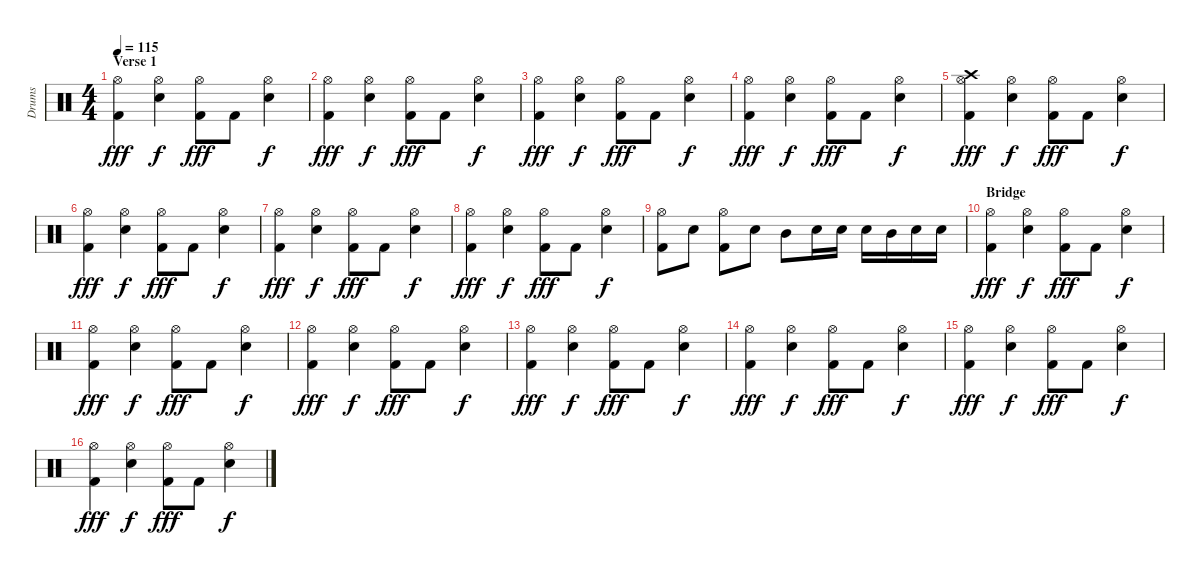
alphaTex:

\track ("Drums" "Drums") {instrument percussion}
\staff {score}
\articulation defaults
\ts (4 4)
\section ("" "Verse 1")
\tempo 115
\clef neutral
\ks c
("Hi-Hat (open)" "Kick (hit) 2").4{dy fff} ("Hi-Hat (open)" "Snare (hit) 2").4{dy f} ("Hi-Hat (open)" "Kick (hit) 2").8{dy fff} "Kick (hit) 2".8 ("Hi-Hat (open)" "Snare (hit) 2").4{dy f} |
("Hi-Hat (open)" "Kick (hit) 2").4{dy fff} ("Hi-Hat (open)" "Snare (hit) 2").4{dy f} ("Hi-Hat (open)" "Kick (hit) 2").8{dy fff} "Kick (hit) 2".8 ("Hi-Hat (open)" "Snare (hit) 2").4{dy f} |
("Hi-Hat (open)" "Kick (hit) 2").4{dy fff} ("Hi-Hat (open)" "Snare (hit) 2").4{dy f} ("Hi-Hat (open)" "Kick (hit) 2").8{dy fff} "Kick (hit) 2".8 ("Hi-Hat (open)" "Snare (hit) 2").4{dy f} |
("Hi-Hat (open)" "Kick (hit) 2").4{dy fff} ("Hi-Hat (open)" "Snare (hit) 2").4{dy f} ("Hi-Hat (open)" "Kick (hit) 2").8{dy fff} "Kick (hit) 2".8 ("Hi-Hat (open)" "Snare (hit) 2").4{dy f} |
("Hi-Hat (open)" "Crash high (hit)" "Kick (hit) 2").4{dy fff} ("Hi-Hat (open)" "Snare (hit) 2").4{dy f} ("Hi-Hat (open)" "Kick (hit) 2").8{dy fff} "Kick (hit) 2".8 ("Hi-Hat (open)" "Snare (hit) 2").4{dy f} |
("Hi-Hat (open)" "Kick (hit) 2").4{dy fff} ("Hi-Hat (open)" "Snare (hit) 2").4{dy f} ("Hi-Hat (open)" "Kick (hit) 2").8{dy fff} "Kick (hit) 2".8 ("Hi-Hat (open)" "Snare (hit) 2").4{dy f} |
("Hi-Hat (open)" "Kick (hit) 2").4{dy fff} ("Hi-Hat (open)" "Snare (hit) 2").4{dy f} ("Hi-Hat (open)" "Kick (hit) 2").8{dy fff} "Kick (hit) 2".8 ("Hi-Hat (open)" "Snare (hit) 2").4{dy f} |
("Hi-Hat (open)" "Kick (hit) 2").4{dy fff} ("Hi-Hat (open)" "Snare (hit) 2").4{dy f} ("Hi-Hat (open)" "Kick (hit) 2").8{dy fff} "Kick (hit) 2".8 ("Hi-Hat (open)" "Snare (hit) 2").4{dy f} |
("Hi-Hat (open)" "Kick (hit) 2").8 "Snare (hit) 2".8 ("Hi-Hat (open)" "Kick (hit) 2").8 "Snare (hit) 2".8 "Mid Tom (hit)".8 "Snare (hit) 2".16 "Snare (hit) 2".16 "Snare (hit) 2".16 "Mid Tom (hit)".16 "Snare (hit) 2".16 "Snare (hit) 2".16 |
\section ("" "Bridge")
("Hi-Hat (open)" "Kick (hit) 2").4{dy fff} ("Hi-Hat (open)" "Snare (hit) 2").4{dy f} ("Hi-Hat (open)" "Kick (hit) 2").8{dy fff} "Kick (hit) 2".8 ("Hi-Hat (open)" "Snare (hit) 2").4{dy f} |
("Hi-Hat (open)" "Kick (hit) 2").4{dy fff} ("Hi-Hat (open)" "Snare (hit) 2").4{dy f} ("Hi-Hat (open)" "Kick (hit) 2").8{dy fff} "Kick (hit) 2".8 ("Hi-Hat (open)" "Snare (hit) 2").4{dy f} |
("Hi-Hat (open)" "Kick (hit) 2").4{dy fff} ("Hi-Hat (open)" "Snare (hit) 2").4{dy f} ("Hi-Hat (open)" "Kick (hit) 2").8{dy fff} "Kick (hit) 2".8 ("Hi-Hat (open)" "Snare (hit) 2").4{dy f} |
("Hi-Hat (open)" "Kick (hit) 2").4{dy fff} ("Hi-Hat (open)" "Snare (hit) 2").4{dy f} ("Hi-Hat (open)" "Kick (hit) 2").8{dy fff} "Kick (hit) 2".8 ("Hi-Hat (open)" "Snare (hit) 2").4{dy f} |
("Hi-Hat (open)" "Kick (hit) 2").4{dy fff} ("Hi-Hat (open)" "Snare (hit) 2").4{dy f} ("Hi-Hat (open)" "Kick (hit) 2").8{dy fff} "Kick (hit) 2".8 ("Hi-Hat (open)" "Snare (hit) 2").4{dy f} |
("Hi-Hat (open)" "Kick (hit) 2").4{dy fff} ("Hi-Hat (open)" "Snare (hit) 2").4{dy f} ("Hi-Hat (open)" "Kick (hit) 2").8{dy fff} "Kick (hit) 2".8 ("Hi-Hat (open)" "Snare (hit) 2").4{dy f} |
("Hi-Hat (open)" "Kick (hit) 2").4{dy fff} ("Hi-Hat (open)" "Snare (hit) 2").4{dy f} ("Hi-Hat (open)" "Kick (hit) 2").8{dy fff} "Kick (hit) 2".8 ("Hi-Hat (open)" "Snare (hit) 2").4{dy f}
